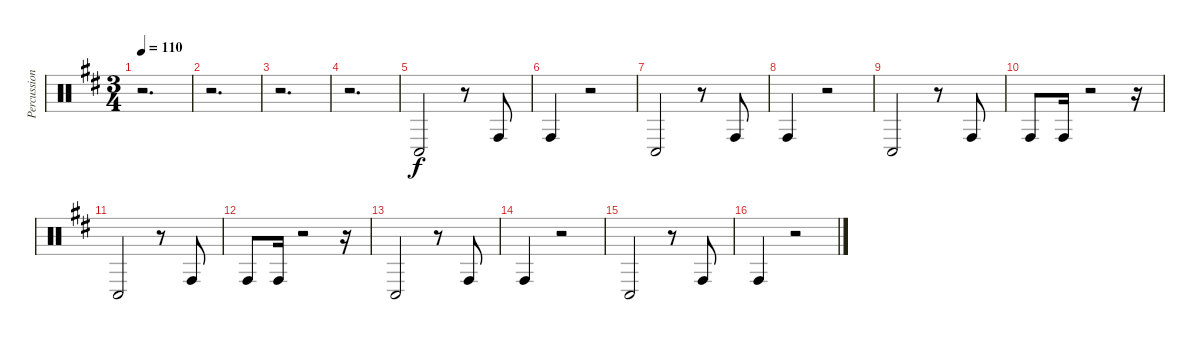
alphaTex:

\track ("Percussion" "Percussion") {instrument percussion}
\staff {score}
\articulation defaults
\ts (3 4)
\tempo 110
\clef neutral
\ks d
r.2{d dy f} |
r.2{d} |
r.2{d} |
r.2{d} |
"Conga low (hit)".2{volume 8} r.8 "Conga high (hit)".8{volume 9} |
"Conga high (hit)".4{volume 10} r.2 |
"Conga low (hit)".2{volume 11} r.8 "Conga high (hit)".8{volume 12} |
"Conga high (hit)".4 r.2 |
"Conga low (hit)".2 r.8 "Conga high (hit)".8 |
"Conga high (hit)".8 "Conga high (hit)".16 r.2 r.16 |
"Conga low (hit)".2 r.8 "Conga high (hit)".8 |
"Conga high (hit)".8 "Conga high (hit)".16 r.2 r.16 |
"Conga low (hit)".2 r.8 "Conga high (hit)".8 |
"Conga high (hit)".4 r.2 |
"Conga low (hit)".2 r.8 "Conga high (hit)".8 |
"Conga high (hit)".4 r.2
